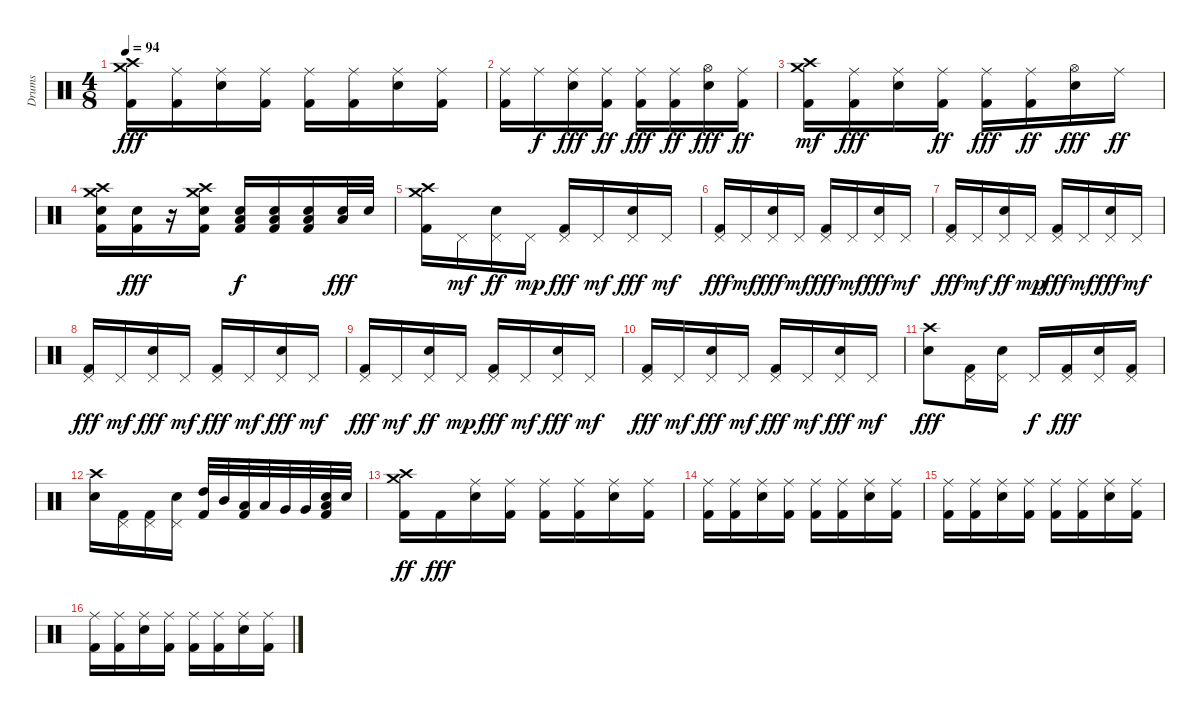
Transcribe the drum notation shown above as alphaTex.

\track ("Drums" "Drums") {instrument percussion}
\staff {score}
\articulation defaults
\ts (4 8)
\tempo 94
\clef neutral
\ks c
("Crash medium (hit)" "Crash high (hit)" "Kick (hit) 2").16{dy fff} ("Kick (hit) 2" "Ride (middle)").16 ("Ride (middle)" "Electric Snare (hit)").16 ("Ride (middle)" "Kick (hit) 2").16 ("Ride (middle)" "Kick (hit) 2").16 ("Kick (hit) 2" "Ride (middle)").16 ("Ride (middle)" "Electric Snare (hit)").16 ("Kick (hit) 2" "Ride (middle)").16 |
("Ride (middle)" "Kick (hit) 2").16 "Ride (middle)".16{dy f} ("Ride (middle)" "Electric Snare (hit)").16{dy fff} ("Kick (hit) 2" "Ride (middle)").16{dy ff} ("Ride (middle)" "Kick (hit) 2").16{dy fff} ("Kick (hit) 2" "Ride (middle)").16{dy ff} ("Hi-Hat (open)" "Electric Snare (hit)").16{dy fff} ("Kick (hit) 2" "Ride (middle)").16{dy ff} |
("Crash high (hit)" "Kick (hit) 2" "Crash medium (hit)").16{dy mf} ("Kick (hit) 2" "Ride (middle)").16{dy fff} ("Ride (middle)" "Electric Snare (hit)").16 ("Kick (hit) 2" "Ride (middle)").16{dy ff} ("Ride (middle)" "Kick (hit) 2").16{dy fff} ("Kick (hit) 2" "Ride (middle)").16{dy ff} ("Hi-Hat (open)" "Electric Snare (hit)").16{dy fff} "Ride (middle)".16{dy ff} |
("Electric Snare (hit)" "Kick (hit) 2" "Crash medium (hit)" "Crash high (hit)").16 ("Kick (hit) 2" "Electric Snare (hit)").16{dy fff} r.16 ("Crash high (hit)" "Crash medium (hit)" "Electric Snare (hit)" "Kick (hit) 2").16 ("Kick (hit) 2" "Electric Snare (hit)" "Low Floor Tom (hit)").16{dy f} ("Electric Snare (hit)" "Kick (hit) 2" "Low Floor Tom (hit)").16 ("Low Floor Tom (hit)" "Electric Snare (hit)" "Kick (hit) 2").16 ("Low Floor Tom (hit)" "Electric Snare (hit)").32{dy fff} "Electric Snare (hit)".32 |
("Crash medium (hit)" "Crash high (hit)" "Kick (hit) 2").16 "Pedal Hi-Hat (hit)".16{dy mf} ("Electric Snare (hit)" "Pedal Hi-Hat (hit)").16{dy ff} "Pedal Hi-Hat (hit)".16{dy mp} ("Pedal Hi-Hat (hit)" "Kick (hit) 2").16{dy fff} "Pedal Hi-Hat (hit)".16{dy mf} ("Pedal Hi-Hat (hit)" "Electric Snare (hit)").16{dy fff} "Pedal Hi-Hat (hit)".16{dy mf} |
("Pedal Hi-Hat (hit)" "Kick (hit) 2").16{dy fff} "Pedal Hi-Hat (hit)".16{dy mf} ("Pedal Hi-Hat (hit)" "Electric Snare (hit)").16{dy fff} "Pedal Hi-Hat (hit)".16{dy mf} ("Pedal Hi-Hat (hit)" "Kick (hit) 2").16{dy fff} "Pedal Hi-Hat (hit)".16{dy mf} ("Pedal Hi-Hat (hit)" "Electric Snare (hit)").16{dy fff} "Pedal Hi-Hat (hit)".16{dy mf} |
("Pedal Hi-Hat (hit)" "Kick (hit) 2").16{dy fff} "Pedal Hi-Hat (hit)".16{dy mf} ("Electric Snare (hit)" "Pedal Hi-Hat (hit)").16{dy ff} "Pedal Hi-Hat (hit)".16{dy mp} ("Pedal Hi-Hat (hit)" "Kick (hit) 2").16{dy fff} "Pedal Hi-Hat (hit)".16{dy mf} ("Pedal Hi-Hat (hit)" "Electric Snare (hit)").16{dy fff} "Pedal Hi-Hat (hit)".16{dy mf} |
("Pedal Hi-Hat (hit)" "Kick (hit) 2").16{dy fff} "Pedal Hi-Hat (hit)".16{dy mf} ("Pedal Hi-Hat (hit)" "Electric Snare (hit)").16{dy fff} "Pedal Hi-Hat (hit)".16{dy mf} ("Pedal Hi-Hat (hit)" "Kick (hit) 2").16{dy fff} "Pedal Hi-Hat (hit)".16{dy mf} ("Pedal Hi-Hat (hit)" "Electric Snare (hit)").16{dy fff} "Pedal Hi-Hat (hit)".16{dy mf} |
("Pedal Hi-Hat (hit)" "Kick (hit) 2").16{dy fff} "Pedal Hi-Hat (hit)".16{dy mf} ("Electric Snare (hit)" "Pedal Hi-Hat (hit)").16{dy ff} "Pedal Hi-Hat (hit)".16{dy mp} ("Pedal Hi-Hat (hit)" "Kick (hit) 2").16{dy fff} "Pedal Hi-Hat (hit)".16{dy mf} ("Pedal Hi-Hat (hit)" "Electric Snare (hit)").16{dy fff} "Pedal Hi-Hat (hit)".16{dy mf} |
("Pedal Hi-Hat (hit)" "Kick (hit) 2").16{dy fff} "Pedal Hi-Hat (hit)".16{dy mf} ("Pedal Hi-Hat (hit)" "Electric Snare (hit)").16{dy fff} "Pedal Hi-Hat (hit)".16{dy mf} ("Pedal Hi-Hat (hit)" "Kick (hit) 2").16{dy fff} "Pedal Hi-Hat (hit)".16{dy mf} ("Pedal Hi-Hat (hit)" "Electric Snare (hit)").16{dy fff} "Pedal Hi-Hat (hit)".16{dy mf} |
("Crash high (hit)" "Electric Snare (hit)").8{dy fff} ("Pedal Hi-Hat (hit)" "Kick (hit) 2").16 ("Pedal Hi-Hat (hit)" "Electric Snare (hit)").16 "Pedal Hi-Hat (hit)".16{dy f} ("Pedal Hi-Hat (hit)" "Kick (hit) 2").16{dy fff} ("Pedal Hi-Hat (hit)" "Electric Snare (hit)").16 ("Pedal Hi-Hat (hit)" "Kick (hit) 2").16 |
("Electric Snare (hit)" "Crash high (hit)").16 ("Pedal Hi-Hat (hit)" "Kick (hit) 2").16 ("Pedal Hi-Hat (hit)" "Kick (hit) 2").16 ("Pedal Hi-Hat (hit)" "Electric Snare (hit)").16 ("Kick (hit) 2" "High Tom (hit)").32 "Mid Tom (hit)".32 ("Kick (hit) 2" "Low Tom (hit)").32 "Low Tom (hit)".32 "Very Low Tom (hit)".32 "Very Low Tom (hit)".32 ("Kick (hit) 2" "Electric Snare (hit)" "Low Floor Tom (hit)").32 "Electric Snare (hit)".32 |
("Crash medium (hit)" "Kick (hit) 2" "Crash high (hit)").16{dy ff} "Kick (hit) 2".16{dy fff} ("Ride (middle)" "Electric Snare (hit)").16 ("Ride (middle)" "Kick (hit) 2").16 ("Ride (middle)" "Kick (hit) 2").16 ("Ride (middle)" "Kick (hit) 2").16 ("Ride (middle)" "Electric Snare (hit)").16 ("Ride (middle)" "Kick (hit) 2").16 |
("Ride (middle)" "Kick (hit) 2").16 ("Ride (middle)" "Kick (hit) 2").16 ("Ride (middle)" "Electric Snare (hit)").16 ("Ride (middle)" "Kick (hit) 2").16 ("Kick (hit) 2" "Ride (middle)").16 ("Ride (middle)" "Kick (hit) 2").16 ("Ride (middle)" "Electric Snare (hit)").16 ("Ride (middle)" "Kick (hit) 2").16 |
("Ride (middle)" "Kick (hit) 2").16 ("Ride (middle)" "Kick (hit) 2").16 ("Electric Snare (hit)" "Ride (middle)").16 ("Ride (middle)" "Kick (hit) 2").16 ("Kick (hit) 2" "Ride (middle)").16 ("Kick (hit) 2" "Ride (middle)").16 ("Ride (middle)" "Electric Snare (hit)").16 ("Ride (middle)" "Kick (hit) 2").16 |
("Kick (hit) 2" "Ride (middle)").16 ("Ride (middle)" "Kick (hit) 2").16 ("Electric Snare (hit)" "Ride (middle)").16 ("Ride (middle)" "Kick (hit) 2").16 ("Kick (hit) 2" "Ride (middle)").16 ("Kick (hit) 2" "Ride (middle)").16 ("Electric Snare (hit)" "Ride (middle)").16 ("Kick (hit) 2" "Ride (middle)").16
